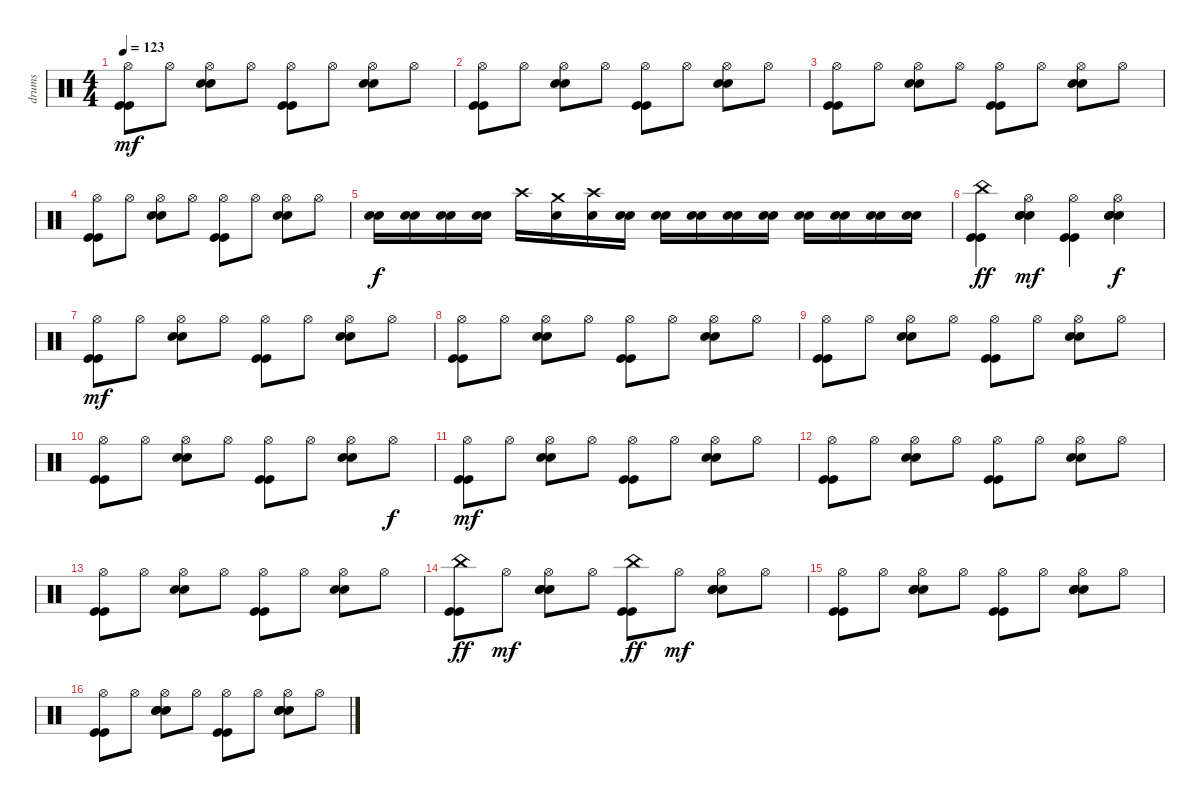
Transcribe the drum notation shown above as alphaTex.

\track ("drums" "drums") {instrument percussion}
\staff {score}
\articulation defaults
\ts (4 4)
\tempo 123
\clef neutral
\ks c
("Hi-Hat (open)" "Kick (hit)" "Kick (hit)").8{dy mf} "Hi-Hat (open)".8 ("Hi-Hat (open)" "Snare (hit) 2" "Snare (hit) 2").8 "Hi-Hat (open)".8 ("Hi-Hat (open)" "Kick (hit)" "Kick (hit)").8 "Hi-Hat (open)".8 ("Hi-Hat (open)" "Snare (hit) 2" "Snare (hit) 2").8 "Hi-Hat (open)".8 |
("Hi-Hat (open)" "Kick (hit)" "Kick (hit)").8 "Hi-Hat (open)".8 ("Hi-Hat (open)" "Snare (hit) 2" "Snare (hit) 2").8 "Hi-Hat (open)".8 ("Hi-Hat (open)" "Kick (hit)" "Kick (hit)").8 "Hi-Hat (open)".8 ("Hi-Hat (open)" "Snare (hit) 2" "Snare (hit) 2").8 "Hi-Hat (open)".8 |
("Hi-Hat (open)" "Kick (hit)" "Kick (hit)").8 "Hi-Hat (open)".8 ("Hi-Hat (open)" "Snare (hit) 2" "Snare (hit) 2").8 "Hi-Hat (open)".8 ("Hi-Hat (open)" "Kick (hit)" "Kick (hit)").8 "Hi-Hat (open)".8 ("Hi-Hat (open)" "Snare (hit) 2" "Snare (hit) 2").8 "Hi-Hat (open)".8 |
("Hi-Hat (open)" "Kick (hit)" "Kick (hit)").8 "Hi-Hat (open)".8 ("Hi-Hat (open)" "Snare (hit) 2" "Snare (hit) 2").8 "Hi-Hat (open)".8 ("Hi-Hat (open)" "Kick (hit)" "Kick (hit)").8 "Hi-Hat (open)".8 ("Hi-Hat (open)" "Snare (hit) 2" "Snare (hit) 2").8 "Hi-Hat (open)".8 |
("Snare (hit) 2" "Snare (hit) 2").16{dy f} ("Snare (hit) 2" "Snare (hit) 2").16 ("Snare (hit) 2" "Snare (hit) 2").16 ("Snare (hit) 2" "Snare (hit) 2").16 "Crash high (hit)".16 ("Crash medium (hit)" "Snare (hit) 2").16 ("Crash high (hit)" "Snare (hit) 2").16 ("Snare (hit) 2" "Snare (hit) 2").16 ("Snare (hit) 2" "Snare (hit) 2").16 ("Snare (hit) 2" "Snare (hit) 2").16 ("Snare (hit) 2" "Snare (hit) 2").16 ("Snare (hit) 2" "Snare (hit) 2").16 ("Snare (hit) 2" "Snare (hit) 2").16 ("Snare (hit) 2" "Snare (hit) 2").16 ("Snare (hit) 2" "Snare (hit) 2").16 ("Snare (hit) 2" "Snare (hit) 2").16 |
("China (hit)" "Kick (hit)" "Kick (hit)").4{dy ff} ("Hi-Hat (open)" "Snare (hit) 2" "Electric Snare (hit)" "Electric Snare (hit)").4{dy mf} ("Hi-Hat (open)" "Kick (hit)" "Kick (hit)").4 ("Hi-Hat (open)" "Snare (hit) 2" "Electric Snare (hit)" "Electric Snare (hit)").4{dy f} |
("Hi-Hat (open)" "Kick (hit)" "Kick (hit)").8{dy mf} "Hi-Hat (open)".8 ("Hi-Hat (open)" "Snare (hit) 2" "Snare (hit) 2").8 "Hi-Hat (open)".8 ("Hi-Hat (open)" "Kick (hit)" "Kick (hit)").8 "Hi-Hat (open)".8 ("Hi-Hat (open)" "Snare (hit) 2" "Snare (hit) 2").8 "Hi-Hat (open)".8 |
("Hi-Hat (open)" "Kick (hit)" "Kick (hit)").8 "Hi-Hat (open)".8 ("Hi-Hat (open)" "Snare (hit) 2" "Snare (hit) 2").8 "Hi-Hat (open)".8 ("Hi-Hat (open)" "Kick (hit)" "Kick (hit)").8 "Hi-Hat (open)".8 ("Hi-Hat (open)" "Snare (hit) 2" "Snare (hit) 2").8 "Hi-Hat (open)".8 |
("Hi-Hat (open)" "Kick (hit)" "Kick (hit)").8 "Hi-Hat (open)".8 ("Hi-Hat (open)" "Snare (hit) 2" "Snare (hit) 2").8 "Hi-Hat (open)".8 ("Hi-Hat (open)" "Kick (hit)" "Kick (hit)").8 "Hi-Hat (open)".8 ("Hi-Hat (open)" "Snare (hit) 2" "Snare (hit) 2").8 "Hi-Hat (open)".8 |
("Hi-Hat (open)" "Kick (hit)" "Kick (hit)").8 "Hi-Hat (open)".8 ("Hi-Hat (open)" "Snare (hit) 2" "Snare (hit) 2").8 "Hi-Hat (open)".8 ("Hi-Hat (open)" "Kick (hit)" "Kick (hit)").8 "Hi-Hat (open)".8 ("Hi-Hat (open)" "Snare (hit) 2" "Snare (hit) 2").8 "Hi-Hat (open)".8{dy f} |
("Hi-Hat (open)" "Kick (hit)" "Kick (hit)").8{dy mf} "Hi-Hat (open)".8 ("Hi-Hat (open)" "Snare (hit) 2" "Snare (hit) 2").8 "Hi-Hat (open)".8 ("Hi-Hat (open)" "Kick (hit)" "Kick (hit)").8 "Hi-Hat (open)".8 ("Hi-Hat (open)" "Snare (hit) 2" "Snare (hit) 2").8 "Hi-Hat (open)".8 |
("Hi-Hat (open)" "Kick (hit)" "Kick (hit)").8 "Hi-Hat (open)".8 ("Hi-Hat (open)" "Snare (hit) 2" "Snare (hit) 2").8 "Hi-Hat (open)".8 ("Hi-Hat (open)" "Kick (hit)" "Kick (hit)").8 "Hi-Hat (open)".8 ("Hi-Hat (open)" "Snare (hit) 2" "Snare (hit) 2").8 "Hi-Hat (open)".8 |
("Hi-Hat (open)" "Kick (hit)" "Kick (hit)").8 "Hi-Hat (open)".8 ("Hi-Hat (open)" "Snare (hit) 2" "Snare (hit) 2").8 "Hi-Hat (open)".8 ("Hi-Hat (open)" "Kick (hit)" "Kick (hit)").8 "Hi-Hat (open)".8 ("Hi-Hat (open)" "Snare (hit) 2" "Snare (hit) 2").8 "Hi-Hat (open)".8 |
("China (hit)" "Kick (hit)" "Kick (hit)").8{dy ff} "Hi-Hat (open)".8{dy mf} ("Hi-Hat (open)" "Snare (hit) 2" "Electric Snare (hit)" "Electric Snare (hit)").8 "Hi-Hat (open)".8 ("China (hit)" "Kick (hit)" "Kick (hit)").8{dy ff} "Hi-Hat (open)".8{dy mf} ("Hi-Hat (open)" "Snare (hit) 2" "Electric Snare (hit)" "Electric Snare (hit)").8 "Hi-Hat (open)".8 |
("Hi-Hat (open)" "Kick (hit)" "Kick (hit)").8 "Hi-Hat (open)".8 ("Hi-Hat (open)" "Snare (hit) 2" "Electric Snare (hit)" "Electric Snare (hit)").8 "Hi-Hat (open)".8 ("Hi-Hat (open)" "Kick (hit)" "Kick (hit)").8 "Hi-Hat (open)".8 ("Hi-Hat (open)" "Snare (hit) 2" "Electric Snare (hit)" "Electric Snare (hit)").8 "Hi-Hat (open)".8 |
("Hi-Hat (open)" "Kick (hit)" "Kick (hit)").8 "Hi-Hat (open)".8 ("Hi-Hat (open)" "Snare (hit) 2" "Electric Snare (hit)" "Electric Snare (hit)").8 "Hi-Hat (open)".8 ("Hi-Hat (open)" "Kick (hit)" "Kick (hit)").8 "Hi-Hat (open)".8 ("Hi-Hat (open)" "Snare (hit) 2" "Electric Snare (hit)" "Electric Snare (hit)").8 "Hi-Hat (open)".8
